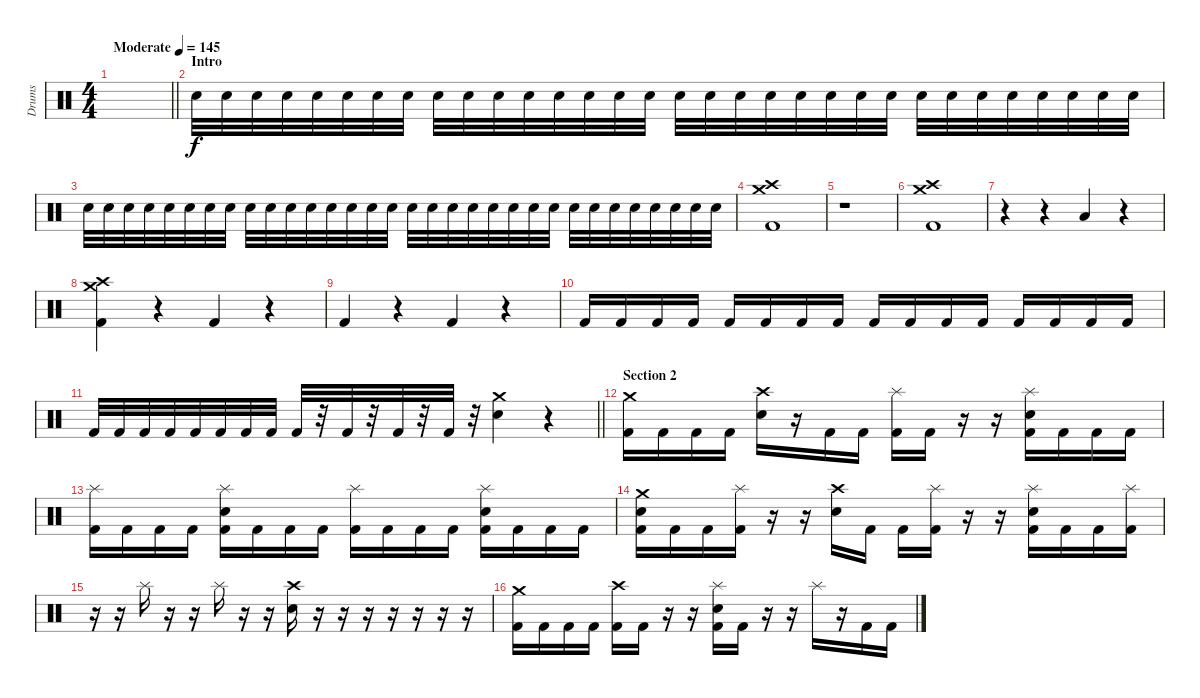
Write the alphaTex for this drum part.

\track ("Drums" "Drums") {instrument percussion}
\staff {score}
\articulation defaults
\ts (4 4)
\tempo (145 "Moderate")
\clef neutral
\barLineRight lightlight
\ks c
|
\section ("" "Intro")
"Electric Snare (hit)".32{volume 13} "Electric Snare (hit)".32 "Electric Snare (hit)".32 "Electric Snare (hit)".32 "Electric Snare (hit)".32 "Electric Snare (hit)".32 "Electric Snare (hit)".32 "Electric Snare (hit)".32 "Electric Snare (hit)".32 "Electric Snare (hit)".32 "Electric Snare (hit)".32 "Electric Snare (hit)".32 "Electric Snare (hit)".32 "Electric Snare (hit)".32 "Electric Snare (hit)".32 "Electric Snare (hit)".32 "Electric Snare (hit)".32 "Electric Snare (hit)".32 "Electric Snare (hit)".32 "Electric Snare (hit)".32 "Electric Snare (hit)".32 "Electric Snare (hit)".32 "Electric Snare (hit)".32 "Electric Snare (hit)".32 "Electric Snare (hit)".32 "Electric Snare (hit)".32 "Electric Snare (hit)".32 "Electric Snare (hit)".32 "Electric Snare (hit)".32 "Electric Snare (hit)".32 "Electric Snare (hit)".32 "Electric Snare (hit)".32 |
"Electric Snare (hit)".32 "Electric Snare (hit)".32 "Electric Snare (hit)".32 "Electric Snare (hit)".32 "Electric Snare (hit)".32 "Electric Snare (hit)".32 "Electric Snare (hit)".32 "Electric Snare (hit)".32 "Electric Snare (hit)".32 "Electric Snare (hit)".32 "Electric Snare (hit)".32 "Electric Snare (hit)".32 "Electric Snare (hit)".32 "Electric Snare (hit)".32 "Electric Snare (hit)".32 "Electric Snare (hit)".32 "Electric Snare (hit)".32 "Electric Snare (hit)".32 "Electric Snare (hit)".32 "Electric Snare (hit)".32 "Electric Snare (hit)".32 "Electric Snare (hit)".32 "Electric Snare (hit)".32 "Electric Snare (hit)".32 "Electric Snare (hit)".32 "Electric Snare (hit)".32 "Electric Snare (hit)".32 "Electric Snare (hit)".32 "Electric Snare (hit)".32 "Electric Snare (hit)".32 "Electric Snare (hit)".32 "Electric Snare (hit)".32 |
("Crash high (hit)" "Crash medium (hit)" "Kick (hit) 2").1 |
r.1 |
("Crash high (hit)" "Crash medium (hit)" "Kick (hit) 2").1 |
r.4 r.4 "Low Tom (hit)".4 r.4 |
("Crash high (hit)" "Crash medium (hit)" "Kick (hit) 2").4 r.4 "Kick (hit) 2".4 r.4 |
"Kick (hit) 2".4 r.4 "Kick (hit) 2".4 r.4 |
"Kick (hit) 2".16 "Kick (hit) 2".16 "Kick (hit) 2".16 "Kick (hit) 2".16 "Kick (hit) 2".16 "Kick (hit) 2".16 "Kick (hit) 2".16 "Kick (hit) 2".16 "Kick (hit) 2".16 "Kick (hit) 2".16 "Kick (hit) 2".16 "Kick (hit) 2".16 "Kick (hit) 2".16 "Kick (hit) 2".16 "Kick (hit) 2".16 "Kick (hit) 2".16 |
\barLineRight lightlight "Kick (hit) 2".32 "Kick (hit) 2".32 "Kick (hit) 2".32 "Kick (hit) 2".32 "Kick (hit) 2".32 "Kick (hit) 2".32 "Kick (hit) 2".32 "Kick (hit) 2".32 "Kick (hit) 2".32
r.32 "Kick (hit) 2".32 r.32 "Kick (hit) 2".32 r.32 "Kick (hit) 2".32 r.32 ("Crash medium (hit)" "Electric Snare (hit)").4 r.4 |
\section ("" "Section 2")
("Crash medium (hit)" "Kick (hit) 2").16 "Kick (hit) 2".16 "Kick (hit) 2".16 "Kick (hit) 2".16 ("Crash high (hit)" "Electric Snare (hit)").16 r.16 "Kick (hit) 2".16 "Kick (hit) 2".16 ("Splash (hit)" "Kick (hit) 2").16 "Kick (hit) 2".16 r.16 r.16 ("Splash (hit)" "Electric Snare (hit)" "Kick (hit) 2").16 "Kick (hit) 2".16 "Kick (hit) 2".16 "Kick (hit) 2".16 |
("Splash (hit)" "Kick (hit) 2").16 "Kick (hit) 2".16 "Kick (hit) 2".16 "Kick (hit) 2".16 ("Splash (hit)" "Electric Snare (hit)" "Kick (hit) 2").16 "Kick (hit) 2".16 "Kick (hit) 2".16 "Kick (hit) 2".16 ("Splash (hit)" "Kick (hit) 2").16 "Kick (hit) 2".16 "Kick (hit) 2".16 "Kick (hit) 2".16 ("Splash (hit)" "Electric Snare (hit)" "Kick (hit) 2").16 "Kick (hit) 2".16 "Kick (hit) 2".16 "Kick (hit) 2".16 |
("Crash medium (hit)" "Electric Snare (hit)" "Kick (hit) 2").16 "Kick (hit) 2".16 "Kick (hit) 2".16 ("Splash (hit)" "Kick (hit) 2").16 r.16 r.16 ("Crash high (hit)" "Electric Snare (hit)").16 "Kick (hit) 2".16 "Kick (hit) 2".16 ("Splash (hit)" "Kick (hit) 2").16 r.16 r.16 ("Splash (hit)" "Electric Snare (hit)" "Kick (hit) 2").16 "Kick (hit) 2".16 "Kick (hit) 2".16 ("Splash (hit)" "Kick (hit) 2").16 |
r.16 r.16 "Splash (hit)".16 r.16 r.16 "Splash (hit)".16 r.16 r.16 ("Crash high (hit)" "Electric Snare (hit)").16 r.16 r.16 r.16 r.16 r.16 r.16 r.16 |
("Crash medium (hit)" "Kick (hit) 2").16 "Kick (hit) 2".16 "Kick (hit) 2".16 "Kick (hit) 2".16 ("Crash high (hit)" "Kick (hit) 2").16 "Kick (hit) 2".16 r.16 r.16 ("Splash (hit)" "Electric Snare (hit)" "Kick (hit) 2").16 "Kick (hit) 2".16 r.16 r.16 "Splash (hit)".16 r.16 "Kick (hit) 2".16 "Kick (hit) 2".16
